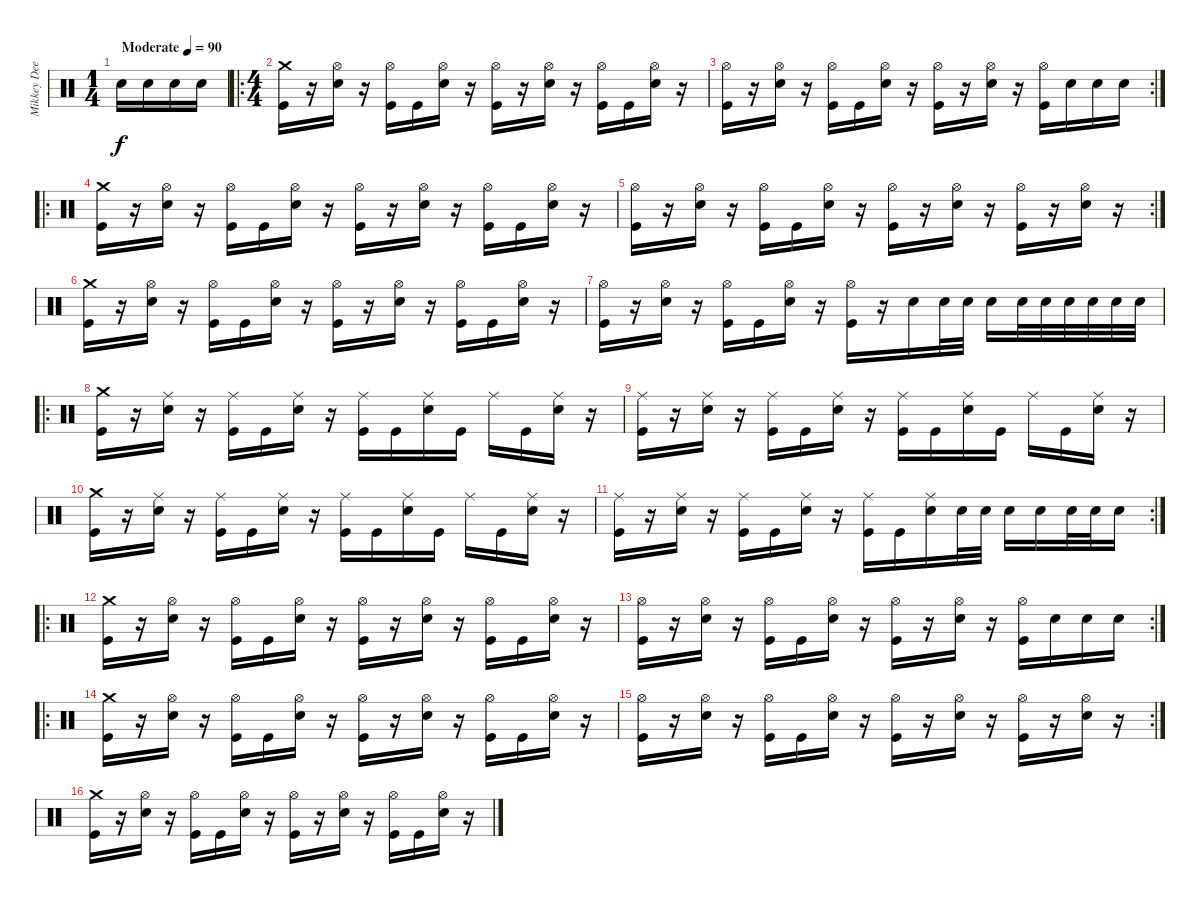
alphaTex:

\track ("Mikkey Dee" "Mikkey Dee") {instrument percussion}
\staff {score}
\articulation defaults
\ts (1 4)
\tempo (90 "Moderate")
\clef neutral
\ks c "Snare (hit) 2".16{dy f} "Snare (hit) 2".16 "Snare (hit) 2".16 "Snare (hit) 2".16
|
\ro
\ts (4 4)
("Crash medium (hit)" "Kick (hit)").16 r.16 ("Hi-Hat (open)" "Snare (hit) 2").16 r.16 ("Hi-Hat (open)" "Kick (hit)").16 "Kick (hit)".16 ("Hi-Hat (open)" "Snare (hit) 2").16 r.16 ("Hi-Hat (open)" "Kick (hit)").16 r.16 ("Hi-Hat (open)" "Snare (hit) 2").16 r.16 ("Hi-Hat (open)" "Kick (hit)").16 "Kick (hit)".16 ("Hi-Hat (open)" "Snare (hit) 2").16 r.16 |
\rc 2
("Hi-Hat (open)" "Kick (hit)").16 r.16 ("Hi-Hat (open)" "Snare (hit) 2").16 r.16 ("Hi-Hat (open)" "Kick (hit)").16 "Kick (hit)".16 ("Hi-Hat (open)" "Snare (hit) 2").16 r.16 ("Hi-Hat (open)" "Kick (hit)").16 r.16 ("Hi-Hat (open)" "Snare (hit) 2").16 r.16 ("Hi-Hat (open)" "Kick (hit)").16 "Snare (hit) 2".16 "Snare (hit) 2".16 "Snare (hit) 2".16 |
\ro
("Crash medium (hit)" "Kick (hit)").16 r.16 ("Hi-Hat (open)" "Snare (hit) 2").16 r.16 ("Hi-Hat (open)" "Kick (hit)").16 "Kick (hit)".16 ("Hi-Hat (open)" "Snare (hit) 2").16 r.16 ("Hi-Hat (open)" "Kick (hit)").16 r.16 ("Hi-Hat (open)" "Snare (hit) 2").16 r.16 ("Hi-Hat (open)" "Kick (hit)").16 "Kick (hit)".16 ("Hi-Hat (open)" "Snare (hit) 2").16 r.16 |
\rc 2
("Hi-Hat (open)" "Kick (hit)").16 r.16 ("Hi-Hat (open)" "Snare (hit) 2").16 r.16 ("Hi-Hat (open)" "Kick (hit)").16 "Kick (hit)".16 ("Hi-Hat (open)" "Snare (hit) 2").16 r.16 ("Hi-Hat (open)" "Kick (hit)").16 r.16 ("Hi-Hat (open)" "Snare (hit) 2").16 r.16 ("Hi-Hat (open)" "Kick (hit)").16 r.16 ("Hi-Hat (open)" "Snare (hit) 2").16 r.16 |
("Crash medium (hit)" "Kick (hit)").16 r.16 ("Hi-Hat (open)" "Snare (hit) 2").16 r.16 ("Hi-Hat (open)" "Kick (hit)").16 "Kick (hit)".16 ("Hi-Hat (open)" "Snare (hit) 2").16 r.16 ("Hi-Hat (open)" "Kick (hit)").16 r.16 ("Hi-Hat (open)" "Snare (hit) 2").16 r.16 ("Hi-Hat (open)" "Kick (hit)").16 "Kick (hit)".16 ("Hi-Hat (open)" "Snare (hit) 2").16 r.16 |
("Hi-Hat (open)" "Kick (hit)").16 r.16 ("Hi-Hat (open)" "Snare (hit) 2").16 r.16 ("Hi-Hat (open)" "Kick (hit)").16 "Kick (hit)".16 ("Hi-Hat (open)" "Snare (hit) 2").16 r.16 ("Hi-Hat (open)" "Kick (hit)").16 r.16 "Snare (hit) 2".16 "Snare (hit) 2".32 "Snare (hit) 2".32 "Snare (hit) 2".16 "Snare (hit) 2".32 "Snare (hit) 2".32 "Snare (hit) 2".32 "Snare (hit) 2".32 "Snare (hit) 2".32 "Snare (hit) 2".32 |
\ro
("Crash medium (hit)" "Kick (hit)").16 r.16 ("Ride (middle)" "Snare (hit) 2").16 r.16 ("Ride (middle)" "Kick (hit)").16 "Kick (hit)".16 ("Ride (middle)" "Snare (hit) 2").16 r.16 ("Ride (middle)" "Kick (hit)").16 "Kick (hit)".16 ("Ride (middle)" "Snare (hit) 2").16 "Kick (hit)".16 "Ride (middle)".16 "Kick (hit)".16 ("Ride (middle)" "Snare (hit) 2").16 r.16 |
("Ride (middle)" "Kick (hit)").16 r.16 ("Ride (middle)" "Snare (hit) 2").16 r.16 ("Ride (middle)" "Kick (hit)").16 "Kick (hit)".16 ("Ride (middle)" "Snare (hit) 2").16 r.16 ("Ride (middle)" "Kick (hit)").16 "Kick (hit)".16 ("Ride (middle)" "Snare (hit) 2").16 "Kick (hit)".16 "Ride (middle)".16 "Kick (hit)".16 ("Ride (middle)" "Snare (hit) 2").16 r.16 |
("Crash medium (hit)" "Kick (hit)").16 r.16 ("Ride (middle)" "Snare (hit) 2").16 r.16 ("Ride (middle)" "Kick (hit)").16 "Kick (hit)".16 ("Ride (middle)" "Snare (hit) 2").16 r.16 ("Ride (middle)" "Kick (hit)").16 "Kick (hit)".16 ("Ride (middle)" "Snare (hit) 2").16 "Kick (hit)".16 "Ride (middle)".16 "Kick (hit)".16 ("Ride (middle)" "Snare (hit) 2").16 r.16 |
\rc 2
("Ride (middle)" "Kick (hit)").16 r.16 ("Ride (middle)" "Snare (hit) 2").16 r.16 ("Ride (middle)" "Kick (hit)").16 "Kick (hit)".16 ("Ride (middle)" "Snare (hit) 2").16 r.16 ("Ride (middle)" "Kick (hit)").16 "Kick (hit)".16 ("Ride (middle)" "Snare (hit) 2").16 "Snare (hit) 2".32 "Snare (hit) 2".32 "Snare (hit) 2".16 "Snare (hit) 2".16 "Snare (hit) 2".32 "Snare (hit) 2".32 "Snare (hit) 2".16 |
\ro
("Crash medium (hit)" "Kick (hit)").16 r.16 ("Hi-Hat (open)" "Snare (hit) 2").16 r.16 ("Hi-Hat (open)" "Kick (hit)").16 "Kick (hit)".16 ("Hi-Hat (open)" "Snare (hit) 2").16 r.16 ("Hi-Hat (open)" "Kick (hit)").16 r.16 ("Hi-Hat (open)" "Snare (hit) 2").16 r.16 ("Hi-Hat (open)" "Kick (hit)").16 "Kick (hit)".16 ("Hi-Hat (open)" "Snare (hit) 2").16 r.16 |
\rc 2
("Hi-Hat (open)" "Kick (hit)").16 r.16 ("Hi-Hat (open)" "Snare (hit) 2").16 r.16 ("Hi-Hat (open)" "Kick (hit)").16 "Kick (hit)".16 ("Hi-Hat (open)" "Snare (hit) 2").16 r.16 ("Hi-Hat (open)" "Kick (hit)").16 r.16 ("Hi-Hat (open)" "Snare (hit) 2").16 r.16 ("Hi-Hat (open)" "Kick (hit)").16 "Snare (hit) 2".16 "Snare (hit) 2".16 "Snare (hit) 2".16 |
\ro
("Crash medium (hit)" "Kick (hit)").16 r.16 ("Hi-Hat (open)" "Snare (hit) 2").16 r.16 ("Hi-Hat (open)" "Kick (hit)").16 "Kick (hit)".16 ("Hi-Hat (open)" "Snare (hit) 2").16 r.16 ("Hi-Hat (open)" "Kick (hit)").16 r.16 ("Hi-Hat (open)" "Snare (hit) 2").16 r.16 ("Hi-Hat (open)" "Kick (hit)").16 "Kick (hit)".16 ("Hi-Hat (open)" "Snare (hit) 2").16 r.16 |
\rc 2
("Hi-Hat (open)" "Kick (hit)").16 r.16 ("Hi-Hat (open)" "Snare (hit) 2").16 r.16 ("Hi-Hat (open)" "Kick (hit)").16 "Kick (hit)".16 ("Hi-Hat (open)" "Snare (hit) 2").16 r.16 ("Hi-Hat (open)" "Kick (hit)").16 r.16 ("Hi-Hat (open)" "Snare (hit) 2").16 r.16 ("Hi-Hat (open)" "Kick (hit)").16 r.16 ("Hi-Hat (open)" "Snare (hit) 2").16 r.16 |
("Crash medium (hit)" "Kick (hit)").16 r.16 ("Hi-Hat (open)" "Snare (hit) 2").16 r.16 ("Hi-Hat (open)" "Kick (hit)").16 "Kick (hit)".16 ("Hi-Hat (open)" "Snare (hit) 2").16 r.16 ("Hi-Hat (open)" "Kick (hit)").16 r.16 ("Hi-Hat (open)" "Snare (hit) 2").16 r.16 ("Hi-Hat (open)" "Kick (hit)").16 "Kick (hit)".16 ("Hi-Hat (open)" "Snare (hit) 2").16 r.16
